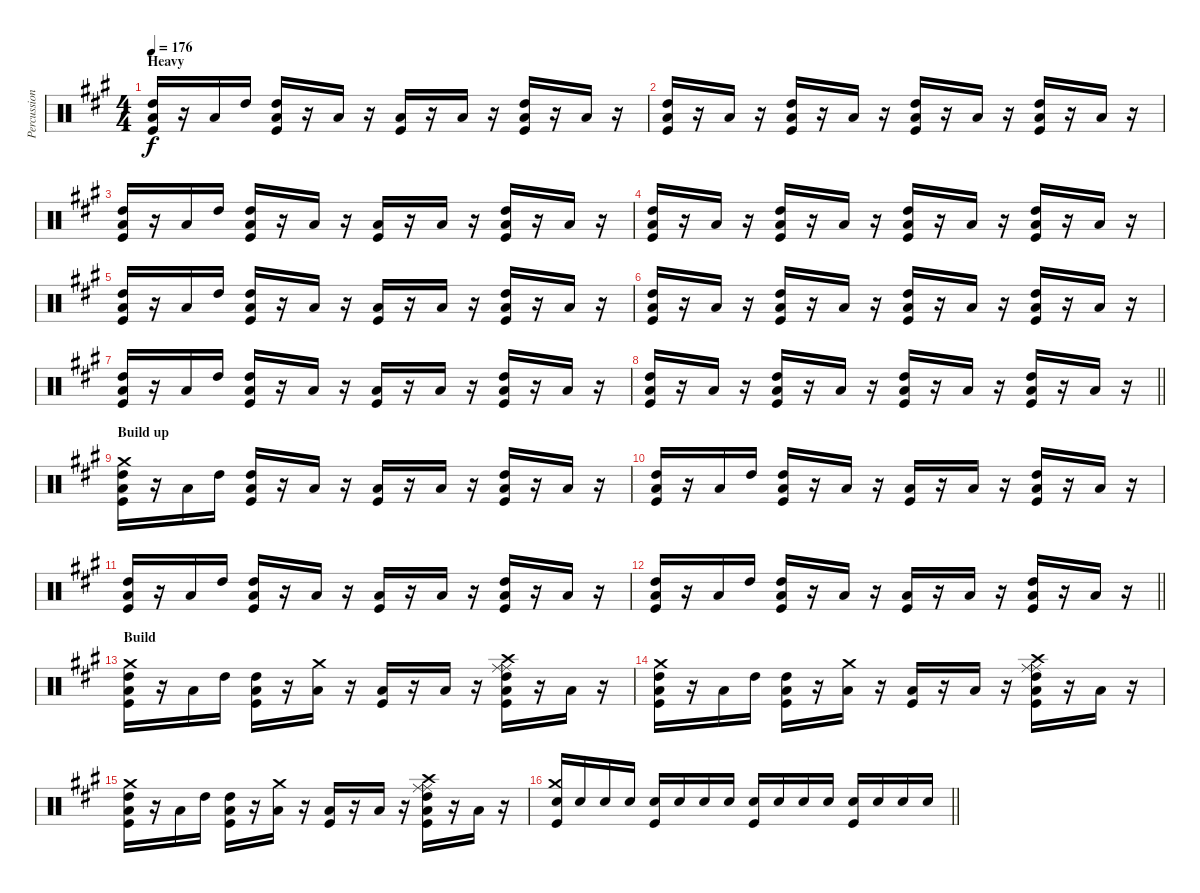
\track ("Percussion" "Percussion") {instrument percussion}
\staff {score}
\articulation defaults
\ts (4 4)
\section ("" "Heavy")
\tempo 176
\clef neutral
\ks a
("High Tom (hit)" "Low Tom (hit)" "Kick (hit)").16{dy f} r.16 "Low Tom (hit)".16 "High Tom (hit)".16 ("High Tom (hit)" "Low Tom (hit)" "Kick (hit)").16 r.16 "Low Tom (hit)".16 r.16 ("Low Tom (hit)" "Kick (hit)").16 r.16 "Low Tom (hit)".16 r.16 ("High Tom (hit)" "Low Tom (hit)" "Kick (hit)").16 r.16 "Low Tom (hit)".16 r.16 |
("High Tom (hit)" "Low Tom (hit)" "Kick (hit)").16 r.16 "Low Tom (hit)".16 r.16 ("High Tom (hit)" "Low Tom (hit)" "Kick (hit)").16 r.16 "Low Tom (hit)".16 r.16 ("High Tom (hit)" "Low Tom (hit)" "Kick (hit)").16 r.16 "Low Tom (hit)".16 r.16 ("High Tom (hit)" "Low Tom (hit)" "Kick (hit)").16 r.16 "Low Tom (hit)".16 r.16 |
("High Tom (hit)" "Low Tom (hit)" "Kick (hit)").16 r.16 "Low Tom (hit)".16 "High Tom (hit)".16 ("High Tom (hit)" "Low Tom (hit)" "Kick (hit)").16 r.16 "Low Tom (hit)".16 r.16 ("Low Tom (hit)" "Kick (hit)").16 r.16 "Low Tom (hit)".16 r.16 ("High Tom (hit)" "Low Tom (hit)" "Kick (hit)").16 r.16 "Low Tom (hit)".16 r.16 |
("High Tom (hit)" "Low Tom (hit)" "Kick (hit)").16 r.16 "Low Tom (hit)".16 r.16 ("High Tom (hit)" "Low Tom (hit)" "Kick (hit)").16 r.16 "Low Tom (hit)".16 r.16 ("High Tom (hit)" "Low Tom (hit)" "Kick (hit)").16 r.16 "Low Tom (hit)".16 r.16 ("High Tom (hit)" "Low Tom (hit)" "Kick (hit)").16 r.16 "Low Tom (hit)".16 r.16 |
("High Tom (hit)" "Low Tom (hit)" "Kick (hit)").16 r.16 "Low Tom (hit)".16 "High Tom (hit)".16 ("High Tom (hit)" "Low Tom (hit)" "Kick (hit)").16 r.16 "Low Tom (hit)".16 r.16 ("Low Tom (hit)" "Kick (hit)").16 r.16 "Low Tom (hit)".16 r.16 ("High Tom (hit)" "Low Tom (hit)" "Kick (hit)").16 r.16 "Low Tom (hit)".16 r.16 |
("High Tom (hit)" "Low Tom (hit)" "Kick (hit)").16 r.16 "Low Tom (hit)".16 r.16 ("High Tom (hit)" "Low Tom (hit)" "Kick (hit)").16 r.16 "Low Tom (hit)".16 r.16 ("High Tom (hit)" "Low Tom (hit)" "Kick (hit)").16 r.16 "Low Tom (hit)".16 r.16 ("High Tom (hit)" "Low Tom (hit)" "Kick (hit)").16 r.16 "Low Tom (hit)".16 r.16 |
("High Tom (hit)" "Low Tom (hit)" "Kick (hit)").16 r.16 "Low Tom (hit)".16 "High Tom (hit)".16 ("High Tom (hit)" "Low Tom (hit)" "Kick (hit)").16 r.16 "Low Tom (hit)".16 r.16 ("Low Tom (hit)" "Kick (hit)").16 r.16 "Low Tom (hit)".16 r.16 ("High Tom (hit)" "Low Tom (hit)" "Kick (hit)").16 r.16 "Low Tom (hit)".16 r.16 |
\barLineRight lightlight
("High Tom (hit)" "Low Tom (hit)" "Kick (hit)").16 r.16 "Low Tom (hit)".16 r.16 ("High Tom (hit)" "Low Tom (hit)" "Kick (hit)").16 r.16 "Low Tom (hit)".16 r.16 ("High Tom (hit)" "Low Tom (hit)" "Kick (hit)").16 r.16 "Low Tom (hit)".16 r.16 ("High Tom (hit)" "Low Tom (hit)" "Kick (hit)").16 r.16 "Low Tom (hit)".16 r.16 |
\section ("" "Build up")
("Crash medium (hit)" "High Tom (hit)" "Low Tom (hit)" "Kick (hit)").16 r.16 "Low Tom (hit)".16 "High Tom (hit)".16 ("High Tom (hit)" "Low Tom (hit)" "Kick (hit)").16 r.16 "Low Tom (hit)".16 r.16 ("Low Tom (hit)" "Kick (hit)").16 r.16 "Low Tom (hit)".16 r.16 ("High Tom (hit)" "Low Tom (hit)" "Kick (hit)").16 r.16 "Low Tom (hit)".16 r.16 |
("High Tom (hit)" "Low Tom (hit)" "Kick (hit)").16 r.16 "Low Tom (hit)".16 "High Tom (hit)".16 ("High Tom (hit)" "Low Tom (hit)" "Kick (hit)").16 r.16 "Low Tom (hit)".16 r.16 ("Low Tom (hit)" "Kick (hit)").16 r.16 "Low Tom (hit)".16 r.16 ("High Tom (hit)" "Low Tom (hit)" "Kick (hit)").16 r.16 "Low Tom (hit)".16 r.16 |
("High Tom (hit)" "Low Tom (hit)" "Kick (hit)").16 r.16 "Low Tom (hit)".16 "High Tom (hit)".16 ("High Tom (hit)" "Low Tom (hit)" "Kick (hit)").16 r.16 "Low Tom (hit)".16 r.16 ("Low Tom (hit)" "Kick (hit)").16 r.16 "Low Tom (hit)".16 r.16 ("High Tom (hit)" "Low Tom (hit)" "Kick (hit)").16 r.16 "Low Tom (hit)".16 r.16 |
\barLineRight lightlight
("High Tom (hit)" "Low Tom (hit)" "Kick (hit)").16 r.16 "Low Tom (hit)".16 "High Tom (hit)".16 ("High Tom (hit)" "Low Tom (hit)" "Kick (hit)").16 r.16 "Low Tom (hit)".16 r.16 ("Low Tom (hit)" "Kick (hit)").16 r.16 "Low Tom (hit)".16 r.16 ("High Tom (hit)" "Low Tom (hit)" "Kick (hit)").16 r.16 "Low Tom (hit)".16 r.16 |
\section ("" "Build")
("Crash medium (hit)" "High Tom (hit)" "Low Tom (hit)" "Kick (hit)").16 r.16 "Low Tom (hit)".16 "High Tom (hit)".16 ("High Tom (hit)" "Low Tom (hit)" "Kick (hit)").16 r.16 ("Crash medium (hit)" "Low Tom (hit)").16 r.16 ("Low Tom (hit)" "Kick (hit)").16 r.16 "Low Tom (hit)".16 r.16 ("Ride (middle)" "Crash high (hit)" "High Tom (hit)" "Ride (middle)" "Low Tom (hit)" "Kick (hit)").16 r.16 "Low Tom (hit)".16 r.16 |
("Crash medium (hit)" "High Tom (hit)" "Low Tom (hit)" "Kick (hit)").16 r.16 "Low Tom (hit)".16 "High Tom (hit)".16 ("High Tom (hit)" "Low Tom (hit)" "Kick (hit)").16 r.16 ("Crash medium (hit)" "Low Tom (hit)").16 r.16 ("Low Tom (hit)" "Kick (hit)").16 r.16 "Low Tom (hit)".16 r.16 ("Ride (middle)" "Crash high (hit)" "High Tom (hit)" "Ride (middle)" "Low Tom (hit)" "Kick (hit)").16 r.16 "Low Tom (hit)".16 r.16 |
("Crash medium (hit)" "High Tom (hit)" "Low Tom (hit)" "Kick (hit)").16 r.16 "Low Tom (hit)".16 "High Tom (hit)".16 ("High Tom (hit)" "Low Tom (hit)" "Kick (hit)").16 r.16 ("Crash medium (hit)" "Low Tom (hit)").16 r.16 ("Low Tom (hit)" "Kick (hit)").16 r.16 "Low Tom (hit)".16 r.16 ("Ride (middle)" "Crash high (hit)" "High Tom (hit)" "Ride (middle)" "Low Tom (hit)" "Kick (hit)").16 r.16 "Low Tom (hit)".16 r.16 |
\barLineRight lightlight
("Crash medium (hit)" "Snare (hit) 2" "Kick (hit)").16 "Snare (hit) 2".16 "Snare (hit) 2".16 "Snare (hit) 2".16 ("Snare (hit) 2" "Kick (hit)").16 "Snare (hit) 2".16 "Snare (hit) 2".16 "Snare (hit) 2".16 ("Snare (hit) 2" "Kick (hit)").16 "Snare (hit) 2".16 "Snare (hit) 2".16 "Snare (hit) 2".16 ("Snare (hit) 2" "Kick (hit)").16 "Snare (hit) 2".16 "Snare (hit) 2".16 "Snare (hit) 2".16
